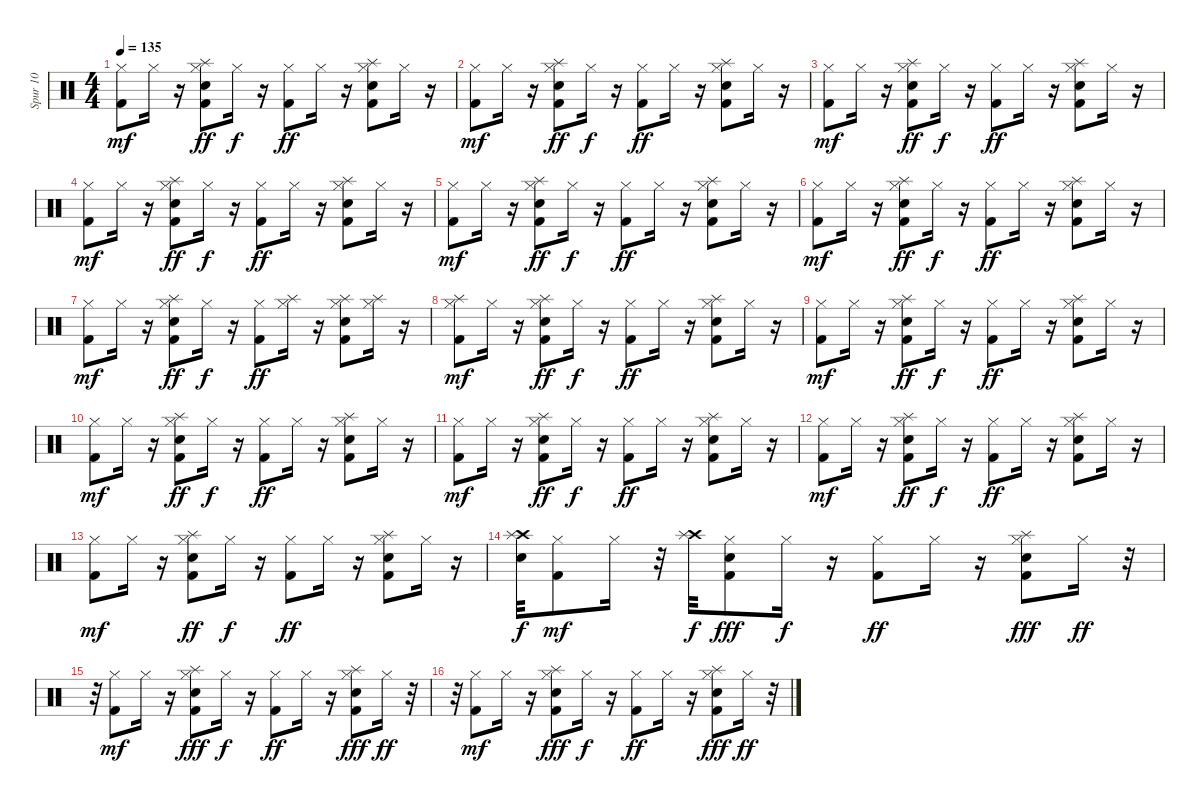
\track ("Spur 10" "Spur 10") {instrument percussion}
\staff {score}
\articulation defaults
\ts (4 4)
\tempo 135
\clef neutral
\ks c
("Kick (hit) 2" "Hi-Hat (closed)").8{dy mf} "Hi-Hat (closed)".16 r.16 ("Splash (hit)" "Snare (hit) 2" "Kick (hit) 2" "Hi-Hat (closed)").8{dy ff} "Hi-Hat (closed)".16{dy f} r.16 ("Kick (hit) 2" "Hi-Hat (closed)").8{dy ff} "Hi-Hat (closed)".16 r.16 ("Splash (hit)" "Snare (hit) 2" "Kick (hit) 2" "Hi-Hat (closed)").8 "Hi-Hat (closed)".16 r.16 |
("Kick (hit) 2" "Hi-Hat (closed)").8{dy mf} "Hi-Hat (closed)".16 r.16 ("Splash (hit)" "Snare (hit) 2" "Kick (hit) 2" "Hi-Hat (closed)").8{dy ff} "Hi-Hat (closed)".16{dy f} r.16 ("Kick (hit) 2" "Hi-Hat (closed)").8{dy ff} "Hi-Hat (closed)".16 r.16 ("Splash (hit)" "Snare (hit) 2" "Kick (hit) 2" "Hi-Hat (closed)").8 "Hi-Hat (closed)".16 r.16 |
("Kick (hit) 2" "Hi-Hat (closed)").8{dy mf} "Hi-Hat (closed)".16 r.16 ("Splash (hit)" "Snare (hit) 2" "Kick (hit) 2" "Hi-Hat (closed)").8{dy ff} "Hi-Hat (closed)".16{dy f} r.16 ("Kick (hit) 2" "Hi-Hat (closed)").8{dy ff} "Hi-Hat (closed)".16 r.16 ("Splash (hit)" "Snare (hit) 2" "Kick (hit) 2" "Hi-Hat (closed)").8 "Hi-Hat (closed)".16 r.16 |
("Kick (hit) 2" "Hi-Hat (closed)").8{dy mf} "Hi-Hat (closed)".16 r.16 ("Splash (hit)" "Snare (hit) 2" "Kick (hit) 2" "Hi-Hat (closed)").8{dy ff} "Hi-Hat (closed)".16{dy f} r.16 ("Kick (hit) 2" "Hi-Hat (closed)").8{dy ff} "Hi-Hat (closed)".16 r.16 ("Splash (hit)" "Snare (hit) 2" "Kick (hit) 2" "Hi-Hat (closed)").8 "Hi-Hat (closed)".16 r.16 |
("Kick (hit) 2" "Hi-Hat (closed)").8{dy mf} "Hi-Hat (closed)".16 r.16 ("Splash (hit)" "Snare (hit) 2" "Kick (hit) 2" "Hi-Hat (closed)").8{dy ff} "Hi-Hat (closed)".16{dy f} r.16 ("Kick (hit) 2" "Hi-Hat (closed)").8{dy ff} "Hi-Hat (closed)".16 r.16 ("Splash (hit)" "Snare (hit) 2" "Kick (hit) 2" "Hi-Hat (closed)").8 "Hi-Hat (closed)".16 r.16 |
("Kick (hit) 2" "Hi-Hat (closed)").8{dy mf} "Hi-Hat (closed)".16 r.16 ("Splash (hit)" "Snare (hit) 2" "Kick (hit) 2" "Hi-Hat (closed)").8{dy ff} "Hi-Hat (closed)".16{dy f} r.16 ("Kick (hit) 2" "Hi-Hat (closed)").8{dy ff} "Hi-Hat (closed)".16 r.16 ("Splash (hit)" "Snare (hit) 2" "Kick (hit) 2" "Hi-Hat (closed)").8 "Hi-Hat (closed)".16 r.16 |
("Kick (hit) 2" "Hi-Hat (closed)").8{dy mf} "Hi-Hat (closed)".16 r.16 ("Splash (hit)" "Snare (hit) 2" "Kick (hit) 2" "Hi-Hat (closed)").8{dy ff} "Hi-Hat (closed)".16{dy f} r.16 ("Kick (hit) 2" "Hi-Hat (closed)").8{dy ff} ("Splash (hit)" "Hi-Hat (closed)").16 r.16 ("Splash (hit)" "Snare (hit) 2" "Kick (hit) 2" "Hi-Hat (closed)").8 ("Splash (hit)" "Hi-Hat (closed)").16 r.16 |
("Splash (hit)" "Kick (hit) 2" "Hi-Hat (closed)").8{dy mf} "Hi-Hat (closed)".16 r.16 ("Splash (hit)" "Snare (hit) 2" "Kick (hit) 2" "Hi-Hat (closed)").8{dy ff} "Hi-Hat (closed)".16{dy f} r.16 ("Kick (hit) 2" "Hi-Hat (closed)").8{dy ff} "Hi-Hat (closed)".16 r.16 ("Splash (hit)" "Snare (hit) 2" "Kick (hit) 2" "Hi-Hat (closed)").8 "Hi-Hat (closed)".16 r.16 |
("Kick (hit) 2" "Hi-Hat (closed)").8{dy mf} "Hi-Hat (closed)".16 r.16 ("Splash (hit)" "Snare (hit) 2" "Kick (hit) 2" "Hi-Hat (closed)").8{dy ff} "Hi-Hat (closed)".16{dy f} r.16 ("Kick (hit) 2" "Hi-Hat (closed)").8{dy ff} "Hi-Hat (closed)".16 r.16 ("Splash (hit)" "Snare (hit) 2" "Kick (hit) 2" "Hi-Hat (closed)").8 "Hi-Hat (closed)".16 r.16 |
("Kick (hit) 2" "Hi-Hat (closed)").8{dy mf} "Hi-Hat (closed)".16 r.16 ("Splash (hit)" "Snare (hit) 2" "Kick (hit) 2" "Hi-Hat (closed)").8{dy ff} "Hi-Hat (closed)".16{dy f} r.16 ("Kick (hit) 2" "Hi-Hat (closed)").8{dy ff} "Hi-Hat (closed)".16 r.16 ("Splash (hit)" "Snare (hit) 2" "Kick (hit) 2" "Hi-Hat (closed)").8 "Hi-Hat (closed)".16 r.16 |
("Kick (hit) 2" "Hi-Hat (closed)").8{dy mf} "Hi-Hat (closed)".16 r.16 ("Splash (hit)" "Snare (hit) 2" "Kick (hit) 2" "Hi-Hat (closed)").8{dy ff} "Hi-Hat (closed)".16{dy f} r.16 ("Kick (hit) 2" "Hi-Hat (closed)").8{dy ff} "Hi-Hat (closed)".16 r.16 ("Splash (hit)" "Snare (hit) 2" "Kick (hit) 2" "Hi-Hat (closed)").8 "Hi-Hat (closed)".16 r.16 |
("Kick (hit) 2" "Hi-Hat (closed)").8{dy mf} "Hi-Hat (closed)".16 r.16 ("Splash (hit)" "Snare (hit) 2" "Kick (hit) 2" "Hi-Hat (closed)").8{dy ff} "Hi-Hat (closed)".16{dy f} r.16 ("Kick (hit) 2" "Hi-Hat (closed)").8{dy ff} "Hi-Hat (closed)".16 r.16 ("Splash (hit)" "Snare (hit) 2" "Kick (hit) 2" "Hi-Hat (closed)").8 "Hi-Hat (closed)".16 r.16 |
("Kick (hit) 2" "Hi-Hat (closed)").8{dy mf} "Hi-Hat (closed)".16 r.16 ("Splash (hit)" "Snare (hit) 2" "Kick (hit) 2" "Hi-Hat (closed)").8{dy ff} "Hi-Hat (closed)".16{dy f} r.16 ("Kick (hit) 2" "Hi-Hat (closed)").8{dy ff} "Hi-Hat (closed)".16 r.16 ("Splash (hit)" "Snare (hit) 2" "Kick (hit) 2" "Hi-Hat (closed)").8 "Hi-Hat (closed)".16 r.16 |
("Crash high (hit)" "Snare (hit) 2" "Splash (hit)").32{dy f} ("Kick (hit) 2" "Hi-Hat (closed)").8{dy mf} "Hi-Hat (closed)".16 r.32 ("Crash high (hit)" "Splash (hit)").32{dy f} ("Kick (hit) 2" "Hi-Hat (closed)" "Snare (hit) 2").8{dy fff} "Hi-Hat (closed)".16{dy f} r.16 ("Kick (hit) 2" "Hi-Hat (closed)").8{dy ff} "Hi-Hat (closed)".16 r.16 ("Kick (hit) 2" "Hi-Hat (closed)" "Splash (hit)" "Snare (hit) 2").8{dy fff} "Hi-Hat (closed)".16{dy ff} r.32 |
r.32 ("Kick (hit) 2" "Hi-Hat (closed)").8{dy mf} "Hi-Hat (closed)".16 r.16 ("Kick (hit) 2" "Hi-Hat (closed)" "Splash (hit)" "Snare (hit) 2").8{dy fff} "Hi-Hat (closed)".16{dy f} r.16 ("Kick (hit) 2" "Hi-Hat (closed)").8{dy ff} "Hi-Hat (closed)".16 r.16 ("Kick (hit) 2" "Hi-Hat (closed)" "Splash (hit)" "Snare (hit) 2").8{dy fff} "Hi-Hat (closed)".16{dy ff} r.32 |
r.32 ("Kick (hit) 2" "Hi-Hat (closed)").8{dy mf} "Hi-Hat (closed)".16 r.16 ("Kick (hit) 2" "Hi-Hat (closed)" "Snare (hit) 2" "Splash (hit)").8{dy fff} "Hi-Hat (closed)".16{dy f} r.16 ("Kick (hit) 2" "Hi-Hat (closed)").8{dy ff} "Hi-Hat (closed)".16 r.16 ("Kick (hit) 2" "Hi-Hat (closed)" "Snare (hit) 2" "Splash (hit)").8{dy fff} "Hi-Hat (closed)".16{dy ff} r.32
